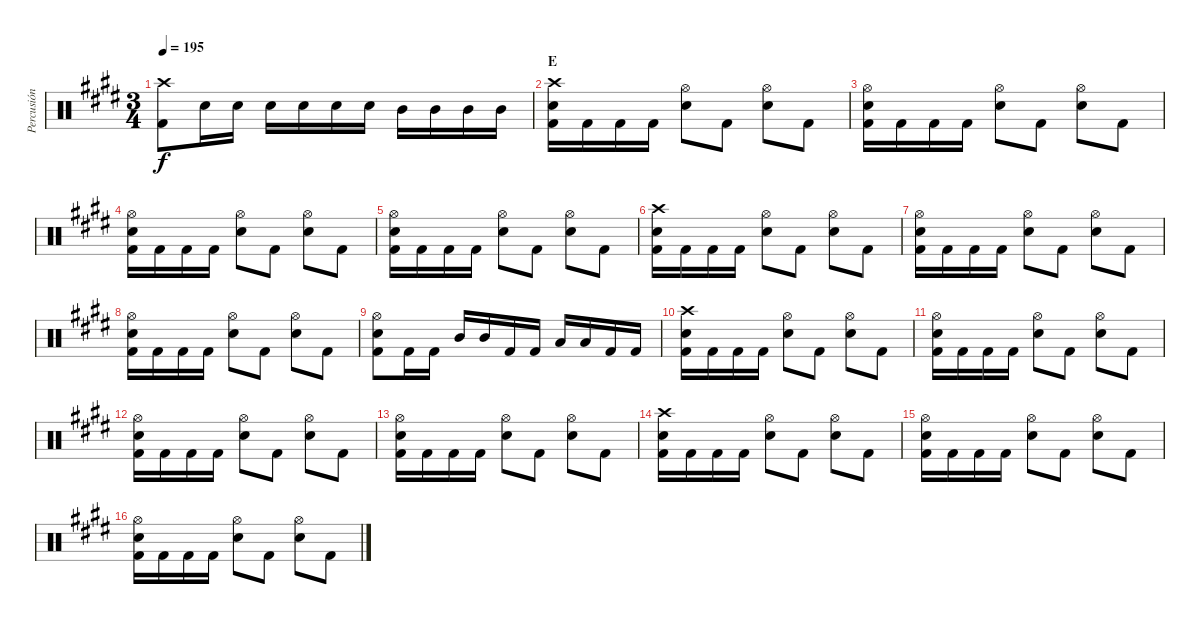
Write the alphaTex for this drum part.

\track ("Percusión" "Percusión") {instrument percussion}
\staff {score}
\articulation defaults
\ts (3 4)
\tempo 195
\clef neutral
\ks e
("Crash high (hit)" "Kick (hit) 2").8{dy f} "Electric Snare (hit)".16 "Electric Snare (hit)".16 "Electric Snare (hit)".16 "Electric Snare (hit)".16 "Electric Snare (hit)".16 "Electric Snare (hit)".16 "Mid Tom (hit)".16 "Mid Tom (hit)".16 "Mid Tom (hit)".16 "Mid Tom (hit)".16 |
\section ("" "E")
("Crash high (hit)" "Electric Snare (hit)" "Kick (hit) 2").16 "Kick (hit) 2".16 "Kick (hit) 2".16 "Kick (hit) 2".16 ("Hi-Hat (open)" "Electric Snare (hit)").8 "Kick (hit) 2".8 ("Hi-Hat (open)" "Electric Snare (hit)").8 "Kick (hit) 2".8 |
("Hi-Hat (open)" "Electric Snare (hit)" "Kick (hit) 2").16 "Kick (hit) 2".16 "Kick (hit) 2".16 "Kick (hit) 2".16 ("Hi-Hat (open)" "Electric Snare (hit)").8 "Kick (hit) 2".8 ("Hi-Hat (open)" "Electric Snare (hit)").8 "Kick (hit) 2".8 |
("Hi-Hat (open)" "Electric Snare (hit)" "Kick (hit) 2").16 "Kick (hit) 2".16 "Kick (hit) 2".16 "Kick (hit) 2".16 ("Hi-Hat (open)" "Electric Snare (hit)").8 "Kick (hit) 2".8 ("Hi-Hat (open)" "Electric Snare (hit)").8 "Kick (hit) 2".8 |
("Hi-Hat (open)" "Electric Snare (hit)" "Kick (hit) 2").16 "Kick (hit) 2".16 "Kick (hit) 2".16 "Kick (hit) 2".16 ("Hi-Hat (open)" "Electric Snare (hit)").8 "Kick (hit) 2".8 ("Hi-Hat (open)" "Electric Snare (hit)").8 "Kick (hit) 2".8 |
("Crash high (hit)" "Electric Snare (hit)" "Kick (hit) 2").16 "Kick (hit) 2".16 "Kick (hit) 2".16 "Kick (hit) 2".16 ("Hi-Hat (open)" "Electric Snare (hit)").8 "Kick (hit) 2".8 ("Hi-Hat (open)" "Electric Snare (hit)").8 "Kick (hit) 2".8 |
("Hi-Hat (open)" "Electric Snare (hit)" "Kick (hit) 2").16 "Kick (hit) 2".16 "Kick (hit) 2".16 "Kick (hit) 2".16 ("Hi-Hat (open)" "Electric Snare (hit)").8 "Kick (hit) 2".8 ("Hi-Hat (open)" "Electric Snare (hit)").8 "Kick (hit) 2".8 |
("Hi-Hat (open)" "Electric Snare (hit)" "Kick (hit) 2").16 "Kick (hit) 2".16 "Kick (hit) 2".16 "Kick (hit) 2".16 ("Hi-Hat (open)" "Electric Snare (hit)").8 "Kick (hit) 2".8 ("Hi-Hat (open)" "Electric Snare (hit)").8 "Kick (hit) 2".8 |
("Hi-Hat (open)" "Electric Snare (hit)" "Kick (hit) 2").8 "Kick (hit) 2".16 "Kick (hit) 2".16 "Mid Tom (hit)".16 "Mid Tom (hit)".16 "Kick (hit) 2".16 "Kick (hit) 2".16 "Low Tom (hit)".16 "Low Tom (hit)".16 "Kick (hit) 2".16 "Kick (hit) 2".16 |
("Crash high (hit)" "Electric Snare (hit)" "Kick (hit) 2").16 "Kick (hit) 2".16 "Kick (hit) 2".16 "Kick (hit) 2".16 ("Hi-Hat (open)" "Electric Snare (hit)").8 "Kick (hit) 2".8 ("Hi-Hat (open)" "Electric Snare (hit)").8 "Kick (hit) 2".8 |
("Hi-Hat (open)" "Electric Snare (hit)" "Kick (hit) 2").16 "Kick (hit) 2".16 "Kick (hit) 2".16 "Kick (hit) 2".16 ("Hi-Hat (open)" "Electric Snare (hit)").8 "Kick (hit) 2".8 ("Hi-Hat (open)" "Electric Snare (hit)").8 "Kick (hit) 2".8 |
("Hi-Hat (open)" "Electric Snare (hit)" "Kick (hit) 2").16 "Kick (hit) 2".16 "Kick (hit) 2".16 "Kick (hit) 2".16 ("Hi-Hat (open)" "Electric Snare (hit)").8 "Kick (hit) 2".8 ("Hi-Hat (open)" "Electric Snare (hit)").8 "Kick (hit) 2".8 |
("Hi-Hat (open)" "Electric Snare (hit)" "Kick (hit) 2").16 "Kick (hit) 2".16 "Kick (hit) 2".16 "Kick (hit) 2".16 ("Hi-Hat (open)" "Electric Snare (hit)").8 "Kick (hit) 2".8 ("Hi-Hat (open)" "Electric Snare (hit)").8 "Kick (hit) 2".8 |
("Crash high (hit)" "Electric Snare (hit)" "Kick (hit) 2").16 "Kick (hit) 2".16 "Kick (hit) 2".16 "Kick (hit) 2".16 ("Hi-Hat (open)" "Electric Snare (hit)").8 "Kick (hit) 2".8 ("Hi-Hat (open)" "Electric Snare (hit)").8 "Kick (hit) 2".8 |
("Hi-Hat (open)" "Electric Snare (hit)" "Kick (hit) 2").16 "Kick (hit) 2".16 "Kick (hit) 2".16 "Kick (hit) 2".16 ("Hi-Hat (open)" "Electric Snare (hit)").8 "Kick (hit) 2".8 ("Hi-Hat (open)" "Electric Snare (hit)").8 "Kick (hit) 2".8 |
("Hi-Hat (open)" "Electric Snare (hit)" "Kick (hit) 2").16 "Kick (hit) 2".16 "Kick (hit) 2".16 "Kick (hit) 2".16 ("Hi-Hat (open)" "Electric Snare (hit)").8 "Kick (hit) 2".8 ("Hi-Hat (open)" "Electric Snare (hit)").8 "Kick (hit) 2".8
